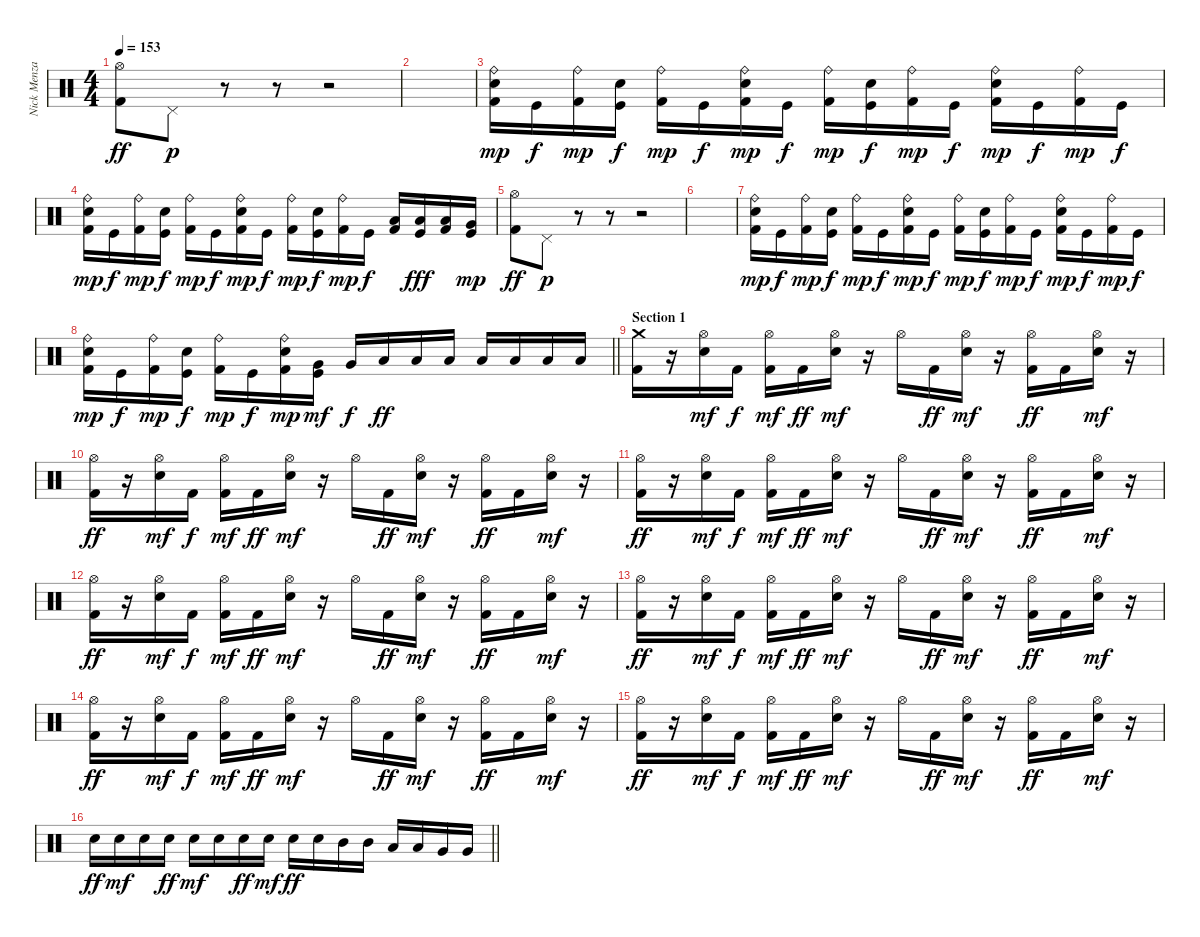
\track ("Nick Menza" "Nick Menza") {instrument percussion}
\staff {score}
\articulation defaults
\ts (4 4)
\tempo 153
\clef neutral
\ks c
("Hi-Hat (open)" "Kick (hit) 2").8{dy ff} "Pedal Hi-Hat (hit)".8{dy p} r.8 r.8 r.2 |
|
("Ride (bell)" "Electric Snare (hit)" "Kick (hit) 2").16{dy mp} "Kick (hit)".16{dy f} ("Ride (bell)" "Kick (hit) 2").16{dy mp} ("Electric Snare (hit)" "Kick (hit)").16{dy f} ("Ride (bell)" "Kick (hit) 2").16{dy mp} "Kick (hit)".16{dy f} ("Ride (bell)" "Electric Snare (hit)" "Kick (hit) 2").16{dy mp} "Kick (hit)".16{dy f} ("Ride (bell)" "Kick (hit) 2").16{dy mp} ("Electric Snare (hit)" "Kick (hit)").16{dy f} ("Ride (bell)" "Kick (hit) 2").16{dy mp} "Kick (hit)".16{dy f} ("Ride (bell)" "Electric Snare (hit)" "Kick (hit) 2").16{dy mp} "Kick (hit)".16{dy f} ("Ride (bell)" "Kick (hit) 2").16{dy mp} "Kick (hit)".16{dy f} |
("Ride (bell)" "Electric Snare (hit)" "Kick (hit) 2").16{dy mp} "Kick (hit)".16{dy f} ("Ride (bell)" "Kick (hit) 2").16{dy mp} ("Electric Snare (hit)" "Kick (hit)").16{dy f} ("Ride (bell)" "Kick (hit) 2").16{dy mp} "Kick (hit)".16{dy f} ("Ride (bell)" "Electric Snare (hit)" "Kick (hit) 2").16{dy mp} "Kick (hit)".16{dy f} ("Ride (bell)" "Kick (hit) 2").16{dy mp} ("Electric Snare (hit)" "Kick (hit)").16{dy f} ("Ride (bell)" "Kick (hit) 2").16{dy mp} "Kick (hit)".16{dy f} ("Low Tom (hit)" "Kick (hit) 2").16 ("Low Tom (hit)" "Kick (hit)").16{dy fff} ("Low Tom (hit)" "Kick (hit) 2").16 ("Very Low Tom (hit)" "Kick (hit)").16{dy mp} |
("Hi-Hat (open)" "Kick (hit) 2").8{dy ff} "Pedal Hi-Hat (hit)".8{dy p} r.8 r.8 r.2 |
|
("Ride (bell)" "Electric Snare (hit)" "Kick (hit) 2").16{dy mp} "Kick (hit)".16{dy f} ("Ride (bell)" "Kick (hit) 2").16{dy mp} ("Electric Snare (hit)" "Kick (hit)").16{dy f} ("Ride (bell)" "Kick (hit) 2").16{dy mp} "Kick (hit)".16{dy f} ("Ride (bell)" "Electric Snare (hit)" "Kick (hit) 2").16{dy mp} "Kick (hit)".16{dy f} ("Ride (bell)" "Kick (hit) 2").16{dy mp} ("Electric Snare (hit)" "Kick (hit)").16{dy f} ("Ride (bell)" "Kick (hit) 2").16{dy mp} "Kick (hit)".16{dy f} ("Ride (bell)" "Electric Snare (hit)" "Kick (hit) 2").16{dy mp} "Kick (hit)".16{dy f} ("Ride (bell)" "Kick (hit) 2").16{dy mp} "Kick (hit)".16{dy f} |
\barLineRight lightlight
("Ride (bell)" "Electric Snare (hit)" "Kick (hit) 2").16{dy mp} "Kick (hit)".16{dy f} ("Ride (bell)" "Kick (hit) 2").16{dy mp} ("Electric Snare (hit)" "Kick (hit)").16{dy f} ("Ride (bell)" "Kick (hit) 2").16{dy mp} "Kick (hit)".16{dy f} ("Ride (bell)" "Electric Snare (hit)" "Kick (hit) 2").16{dy mp} ("Very Low Tom (hit)" "Kick (hit)").16{dy mf} "Very Low Tom (hit)".16{dy f} "Low Tom (hit)".16{dy ff} "Low Tom (hit)".16 "Low Tom (hit)".16 "Low Tom (hit)".16 "Low Tom (hit)".16 "Low Tom (hit)".16 "Low Tom (hit)".16 |
\section ("" "Section 1")
("Crash medium (hit)" "Kick (hit) 2").16 r.16 ("Hi-Hat (open)" "Electric Snare (hit)").16{dy mf} "Kick (hit) 2".16{dy f} ("Hi-Hat (open)" "Kick (hit) 2").16{dy mf} "Kick (hit) 2".16{dy ff} ("Hi-Hat (open)" "Electric Snare (hit)").16{dy mf} r.16 "Hi-Hat (open)".16 "Kick (hit) 2".16{dy ff} ("Hi-Hat (open)" "Electric Snare (hit)").16{dy mf} r.16 ("Hi-Hat (open)" "Kick (hit) 2").16{dy ff} "Kick (hit) 2".16 ("Hi-Hat (open)" "Electric Snare (hit)").16{dy mf} r.16 |
("Hi-Hat (open)" "Kick (hit) 2").16{dy ff} r.16 ("Hi-Hat (open)" "Electric Snare (hit)").16{dy mf} "Kick (hit) 2".16{dy f} ("Hi-Hat (open)" "Kick (hit) 2").16{dy mf} "Kick (hit) 2".16{dy ff} ("Hi-Hat (open)" "Electric Snare (hit)").16{dy mf} r.16 "Hi-Hat (open)".16 "Kick (hit) 2".16{dy ff} ("Hi-Hat (open)" "Electric Snare (hit)").16{dy mf} r.16 ("Hi-Hat (open)" "Kick (hit) 2").16{dy ff} "Kick (hit) 2".16 ("Hi-Hat (open)" "Electric Snare (hit)").16{dy mf} r.16 |
("Hi-Hat (open)" "Kick (hit) 2").16{dy ff} r.16 ("Hi-Hat (open)" "Electric Snare (hit)").16{dy mf} "Kick (hit) 2".16{dy f} ("Hi-Hat (open)" "Kick (hit) 2").16{dy mf} "Kick (hit) 2".16{dy ff} ("Hi-Hat (open)" "Electric Snare (hit)").16{dy mf} r.16 "Hi-Hat (open)".16 "Kick (hit) 2".16{dy ff} ("Hi-Hat (open)" "Electric Snare (hit)").16{dy mf} r.16 ("Hi-Hat (open)" "Kick (hit) 2").16{dy ff} "Kick (hit) 2".16 ("Hi-Hat (open)" "Electric Snare (hit)").16{dy mf} r.16 |
("Hi-Hat (open)" "Kick (hit) 2").16{dy ff} r.16 ("Hi-Hat (open)" "Electric Snare (hit)").16{dy mf} "Kick (hit) 2".16{dy f} ("Hi-Hat (open)" "Kick (hit) 2").16{dy mf} "Kick (hit) 2".16{dy ff} ("Hi-Hat (open)" "Electric Snare (hit)").16{dy mf} r.16 "Hi-Hat (open)".16 "Kick (hit) 2".16{dy ff} ("Hi-Hat (open)" "Electric Snare (hit)").16{dy mf} r.16 ("Hi-Hat (open)" "Kick (hit) 2").16{dy ff} "Kick (hit) 2".16 ("Hi-Hat (open)" "Electric Snare (hit)").16{dy mf} r.16 |
("Hi-Hat (open)" "Kick (hit) 2").16{dy ff} r.16 ("Hi-Hat (open)" "Electric Snare (hit)").16{dy mf} "Kick (hit) 2".16{dy f} ("Hi-Hat (open)" "Kick (hit) 2").16{dy mf} "Kick (hit) 2".16{dy ff} ("Hi-Hat (open)" "Electric Snare (hit)").16{dy mf} r.16 "Hi-Hat (open)".16 "Kick (hit) 2".16{dy ff} ("Hi-Hat (open)" "Electric Snare (hit)").16{dy mf} r.16 ("Hi-Hat (open)" "Kick (hit) 2").16{dy ff} "Kick (hit) 2".16 ("Hi-Hat (open)" "Electric Snare (hit)").16{dy mf} r.16 |
("Hi-Hat (open)" "Kick (hit) 2").16{dy ff} r.16 ("Hi-Hat (open)" "Electric Snare (hit)").16{dy mf} "Kick (hit) 2".16{dy f} ("Hi-Hat (open)" "Kick (hit) 2").16{dy mf} "Kick (hit) 2".16{dy ff} ("Hi-Hat (open)" "Electric Snare (hit)").16{dy mf} r.16 "Hi-Hat (open)".16 "Kick (hit) 2".16{dy ff} ("Hi-Hat (open)" "Electric Snare (hit)").16{dy mf} r.16 ("Hi-Hat (open)" "Kick (hit) 2").16{dy ff} "Kick (hit) 2".16 ("Hi-Hat (open)" "Electric Snare (hit)").16{dy mf} r.16 |
("Hi-Hat (open)" "Kick (hit) 2").16{dy ff} r.16 ("Hi-Hat (open)" "Electric Snare (hit)").16{dy mf} "Kick (hit) 2".16{dy f} ("Hi-Hat (open)" "Kick (hit) 2").16{dy mf} "Kick (hit) 2".16{dy ff} ("Hi-Hat (open)" "Electric Snare (hit)").16{dy mf} r.16 "Hi-Hat (open)".16 "Kick (hit) 2".16{dy ff} ("Hi-Hat (open)" "Electric Snare (hit)").16{dy mf} r.16 ("Hi-Hat (open)" "Kick (hit) 2").16{dy ff} "Kick (hit) 2".16 ("Hi-Hat (open)" "Electric Snare (hit)").16{dy mf} r.16 |
\barLineRight lightlight "Electric Snare (hit)".16{dy ff} "Electric Snare (hit)".16{dy mf} "Electric Snare (hit)".16 "Electric Snare (hit)".16{dy ff} "Electric Snare (hit)".16{dy mf} "Electric Snare (hit)".16 "Electric Snare (hit)".16{dy ff} "Electric Snare (hit)".16{dy mf} "Electric Snare (hit)".16{dy ff} "Electric Snare (hit)".16 "Mid Tom (hit)".16 "Mid Tom (hit)".16 "Low Tom (hit)".16 "Low Tom (hit)".16 "Very Low Tom (hit)".16 "Very Low Tom (hit)".16
